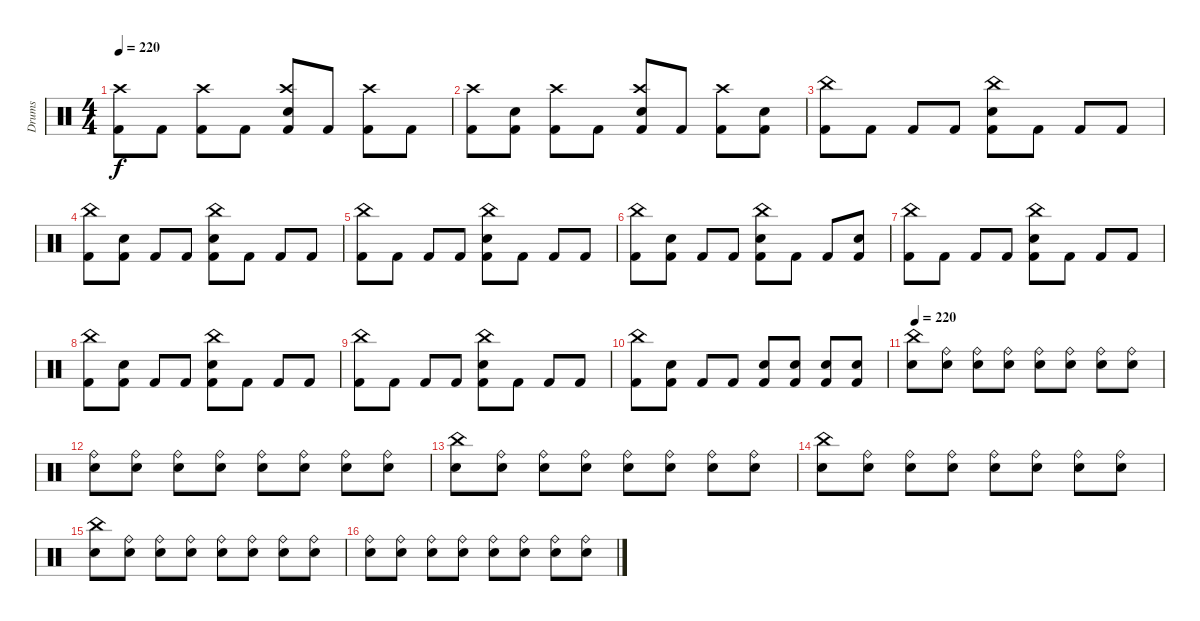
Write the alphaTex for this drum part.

\track ("Drums" "Drums") {instrument percussion}
\staff {score}
\articulation defaults
\ts (4 4)
\tempo 220
\clef neutral
\ks c
("Kick (hit) 2" "Crash high (hit)").8{dy f} "Kick (hit) 2".8 ("Kick (hit) 2" "Crash high (hit)").8 "Kick (hit) 2".8 ("Kick (hit) 2" "Crash high (hit)" "Electric Snare (hit)").8 "Kick (hit) 2".8 ("Kick (hit) 2" "Crash high (hit)").8 "Kick (hit) 2".8 |
("Kick (hit) 2" "Crash high (hit)").8 ("Kick (hit) 2" "Electric Snare (hit)").8 ("Kick (hit) 2" "Crash high (hit)").8 "Kick (hit) 2".8 ("Kick (hit) 2" "Crash high (hit)" "Electric Snare (hit)").8 "Kick (hit) 2".8 ("Kick (hit) 2" "Crash high (hit)").8 ("Kick (hit) 2" "Electric Snare (hit)").8 |
("Kick (hit) 2" "China (hit)").8 "Kick (hit) 2".8 "Kick (hit) 2".8 "Kick (hit) 2".8 ("Kick (hit) 2" "China (hit)" "Electric Snare (hit)").8 "Kick (hit) 2".8 "Kick (hit) 2".8 "Kick (hit) 2".8 |
("Kick (hit) 2" "China (hit)").8 ("Kick (hit) 2" "Electric Snare (hit)").8 "Kick (hit) 2".8 "Kick (hit) 2".8 ("Kick (hit) 2" "China (hit)" "Electric Snare (hit)").8 "Kick (hit) 2".8 "Kick (hit) 2".8 "Kick (hit) 2".8 |
("Kick (hit) 2" "China (hit)").8 "Kick (hit) 2".8 "Kick (hit) 2".8 "Kick (hit) 2".8 ("Kick (hit) 2" "China (hit)" "Electric Snare (hit)").8 "Kick (hit) 2".8 "Kick (hit) 2".8 "Kick (hit) 2".8 |
("Kick (hit) 2" "China (hit)").8 ("Kick (hit) 2" "Electric Snare (hit)").8 "Kick (hit) 2".8 "Kick (hit) 2".8 ("Kick (hit) 2" "China (hit)" "Electric Snare (hit)").8 "Kick (hit) 2".8 "Kick (hit) 2".8 ("Kick (hit) 2" "Electric Snare (hit)").8 |
("Kick (hit) 2" "China (hit)").8 "Kick (hit) 2".8 "Kick (hit) 2".8 "Kick (hit) 2".8 ("Kick (hit) 2" "China (hit)" "Electric Snare (hit)").8 "Kick (hit) 2".8 "Kick (hit) 2".8 "Kick (hit) 2".8 |
("Kick (hit) 2" "China (hit)").8 ("Kick (hit) 2" "Electric Snare (hit)").8 "Kick (hit) 2".8 "Kick (hit) 2".8 ("Kick (hit) 2" "China (hit)" "Electric Snare (hit)").8 "Kick (hit) 2".8 "Kick (hit) 2".8 "Kick (hit) 2".8 |
("Kick (hit) 2" "China (hit)").8 "Kick (hit) 2".8 "Kick (hit) 2".8 "Kick (hit) 2".8 ("Kick (hit) 2" "China (hit)" "Electric Snare (hit)").8 "Kick (hit) 2".8 "Kick (hit) 2".8 "Kick (hit) 2".8 |
("Kick (hit) 2" "China (hit)").8 ("Kick (hit) 2" "Electric Snare (hit)").8 "Kick (hit) 2".8 "Kick (hit) 2".8 ("Kick (hit) 2" "Electric Snare (hit)").8 ("Kick (hit) 2" "Electric Snare (hit)").8 ("Kick (hit) 2" "Electric Snare (hit)").8 ("Kick (hit) 2" "Electric Snare (hit)").8 |
\tempo 220
("Electric Snare (hit)" "China (hit)").8 ("Electric Snare (hit)" "Ride (bell)").8 ("Electric Snare (hit)" "Ride (bell)").8 ("Electric Snare (hit)" "Ride (bell)").8 ("Electric Snare (hit)" "Ride (bell)").8 ("Electric Snare (hit)" "Ride (bell)").8 ("Electric Snare (hit)" "Ride (bell)").8 ("Electric Snare (hit)" "Ride (bell)").8 |
("Electric Snare (hit)" "Ride (bell)").8 ("Electric Snare (hit)" "Ride (bell)").8 ("Electric Snare (hit)" "Ride (bell)").8 ("Electric Snare (hit)" "Ride (bell)").8 ("Electric Snare (hit)" "Ride (bell)").8 ("Electric Snare (hit)" "Ride (bell)").8 ("Electric Snare (hit)" "Ride (bell)").8 ("Electric Snare (hit)" "Ride (bell)").8 |
("Electric Snare (hit)" "China (hit)").8 ("Electric Snare (hit)" "Ride (bell)").8 ("Electric Snare (hit)" "Ride (bell)").8 ("Electric Snare (hit)" "Ride (bell)").8 ("Electric Snare (hit)" "Ride (bell)").8 ("Electric Snare (hit)" "Ride (bell)").8 ("Electric Snare (hit)" "Ride (bell)").8 ("Electric Snare (hit)" "Ride (bell)").8 |
("Electric Snare (hit)" "China (hit)").8 ("Electric Snare (hit)" "Ride (bell)").8 ("Electric Snare (hit)" "Ride (bell)").8 ("Electric Snare (hit)" "Ride (bell)").8 ("Electric Snare (hit)" "Ride (bell)").8 ("Electric Snare (hit)" "Ride (bell)").8 ("Electric Snare (hit)" "Ride (bell)").8 ("Electric Snare (hit)" "Ride (bell)").8 |
("Electric Snare (hit)" "China (hit)").8 ("Electric Snare (hit)" "Ride (bell)").8 ("Electric Snare (hit)" "Ride (bell)").8 ("Electric Snare (hit)" "Ride (bell)").8 ("Electric Snare (hit)" "Ride (bell)").8 ("Electric Snare (hit)" "Ride (bell)").8 ("Electric Snare (hit)" "Ride (bell)").8 ("Electric Snare (hit)" "Ride (bell)").8 |
("Electric Snare (hit)" "Ride (bell)").8 ("Electric Snare (hit)" "Ride (bell)").8 ("Electric Snare (hit)" "Ride (bell)").8 ("Electric Snare (hit)" "Ride (bell)").8 ("Electric Snare (hit)" "Ride (bell)").8 ("Electric Snare (hit)" "Ride (bell)").8 ("Electric Snare (hit)" "Ride (bell)").8 ("Electric Snare (hit)" "Ride (bell)").8
